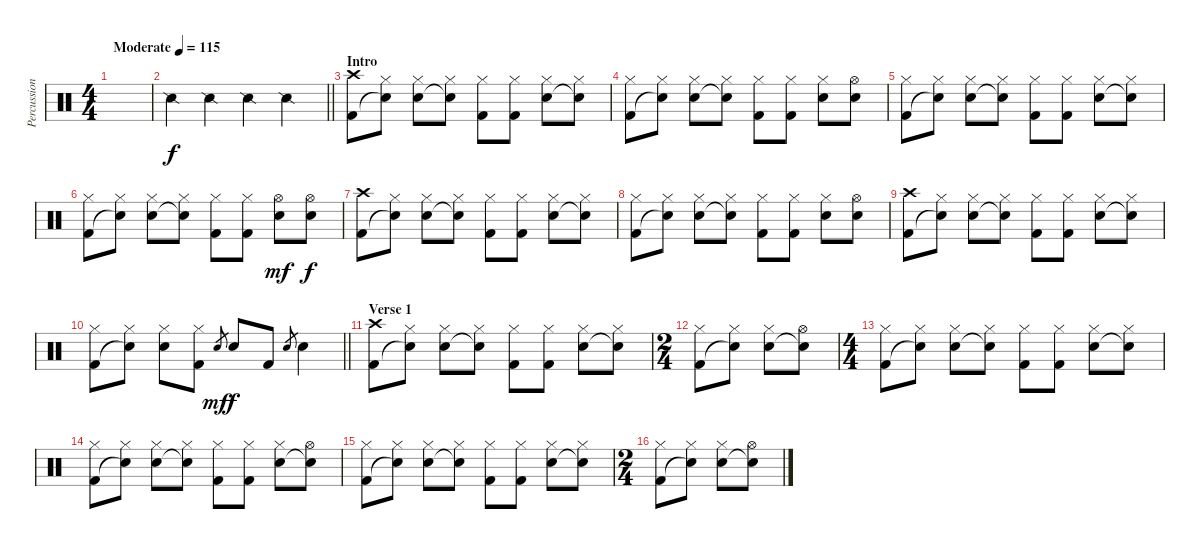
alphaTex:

\track ("Percussioni" "Percussion") {instrument percussion}
\staff {score}
\articulation defaults
\ts (4 4)
\tempo (115 "Moderate")
\clef neutral
\ks c
|
\barLineRight lightlight "Snare (side stick) 2".4 "Snare (side stick) 2".4 "Snare (side stick) 2".4 "Snare (side stick) 2".4
|
\section ("" "Intro")
("Crash high (hit)" "Kick (hit) 2").8 ("Hi-Hat (closed)" "Snare (hit)"{t}).8 ("Hi-Hat (closed)" "Electric Snare (hit)").8 ("Hi-Hat (closed)" "Snare (hit)"{t}).8 ("Hi-Hat (closed)" "Kick (hit) 2").8 ("Hi-Hat (closed)" "Kick (hit) 2").8 ("Hi-Hat (closed)" "Electric Snare (hit)").8 ("Hi-Hat (closed)" "Snare (hit)"{t}).8 |
("Hi-Hat (closed)" "Kick (hit) 2").8 ("Hi-Hat (closed)" "Snare (hit)"{t}).8 ("Hi-Hat (closed)" "Electric Snare (hit)").8 ("Hi-Hat (closed)" "Snare (hit)"{t}).8 ("Hi-Hat (closed)" "Kick (hit) 2").8 ("Hi-Hat (closed)" "Kick (hit) 2").8 ("Hi-Hat (closed)" "Electric Snare (hit)").8 ("Hi-Hat (open)" "Electric Snare (hit)").8 |
("Hi-Hat (closed)" "Kick (hit) 2").8 ("Hi-Hat (closed)" "Snare (hit)"{t}).8 ("Hi-Hat (closed)" "Electric Snare (hit)").8 ("Hi-Hat (closed)" "Snare (hit)"{t}).8 ("Hi-Hat (closed)" "Kick (hit) 2").8 ("Hi-Hat (closed)" "Kick (hit) 2").8 ("Hi-Hat (closed)" "Electric Snare (hit)").8 ("Hi-Hat (closed)" "Snare (hit)"{t}).8 |
("Hi-Hat (closed)" "Kick (hit) 2").8 ("Hi-Hat (closed)" "Snare (hit)"{t}).8 ("Hi-Hat (closed)" "Electric Snare (hit)").8 ("Hi-Hat (closed)" "Snare (hit)"{t}).8 ("Hi-Hat (closed)" "Kick (hit) 2").8 ("Hi-Hat (closed)" "Kick (hit) 2").8 ("Hi-Hat (open)" "Electric Snare (hit)").8{dy mf} ("Hi-Hat (open)" "Electric Snare (hit)").8{dy f} |
("Crash high (hit)" "Kick (hit) 2").8 ("Hi-Hat (closed)" "Snare (hit)"{t}).8 ("Hi-Hat (closed)" "Electric Snare (hit)").8 ("Hi-Hat (closed)" "Snare (hit)"{t}).8 ("Hi-Hat (closed)" "Kick (hit) 2").8 ("Hi-Hat (closed)" "Kick (hit) 2").8 ("Hi-Hat (closed)" "Electric Snare (hit)").8 ("Hi-Hat (closed)" "Snare (hit)"{t}).8 |
("Hi-Hat (closed)" "Kick (hit) 2").8 ("Hi-Hat (closed)" "Snare (hit)"{t}).8 ("Hi-Hat (closed)" "Electric Snare (hit)").8 ("Hi-Hat (closed)" "Snare (hit)"{t}).8 ("Hi-Hat (closed)" "Kick (hit) 2").8 ("Hi-Hat (closed)" "Kick (hit) 2").8 ("Hi-Hat (closed)" "Electric Snare (hit)").8 ("Hi-Hat (open)" "Electric Snare (hit)").8 |
("Crash high (hit)" "Kick (hit) 2").8 ("Hi-Hat (closed)" "Snare (hit)"{t}).8 ("Hi-Hat (closed)" "Electric Snare (hit)").8 ("Hi-Hat (closed)" "Snare (hit)"{t}).8 ("Hi-Hat (closed)" "Kick (hit) 2").8 ("Hi-Hat (closed)" "Kick (hit) 2").8 ("Hi-Hat (closed)" "Electric Snare (hit)").8 ("Hi-Hat (closed)" "Snare (hit)"{t}).8 |
\barLineRight lightlight
("Hi-Hat (closed)" "Kick (hit) 2").8 ("Hi-Hat (closed)" "Snare (hit)"{t}).8 ("Hi-Hat (closed)" "Electric Snare (hit)").8 ("Hi-Hat (closed)" "Kick (hit) 2").8 "Electric Snare (hit)".8{gr dy mf} "Electric Snare (hit)".8{dy f} "Kick (hit) 2".8 "Electric Snare (hit)".8{gr} "Electric Snare (hit)".4 |
\section ("" "Verse 1")
("Crash high (hit)" "Kick (hit) 2").8 ("Hi-Hat (closed)" "Snare (hit)"{t}).8 ("Hi-Hat (closed)" "Electric Snare (hit)").8 ("Hi-Hat (closed)" "Snare (hit)"{t}).8 ("Hi-Hat (closed)" "Kick (hit) 2").8 ("Hi-Hat (closed)" "Kick (hit) 2").8 ("Hi-Hat (closed)" "Electric Snare (hit)").8 ("Hi-Hat (closed)" "Snare (hit)"{t}).8 |
\ts (2 4)
("Hi-Hat (closed)" "Kick (hit) 2").8 ("Hi-Hat (closed)" "Snare (hit)"{t}).8 ("Hi-Hat (closed)" "Electric Snare (hit)").8 ("Hi-Hat (open)" "Snare (hit)"{t}).8 |
\ts (4 4)
("Hi-Hat (closed)" "Kick (hit) 2").8 ("Hi-Hat (closed)" "Snare (hit)"{t}).8 ("Hi-Hat (closed)" "Electric Snare (hit)").8 ("Hi-Hat (closed)" "Snare (hit)"{t}).8 ("Hi-Hat (closed)" "Kick (hit) 2").8 ("Hi-Hat (closed)" "Kick (hit) 2").8 ("Hi-Hat (closed)" "Electric Snare (hit)").8 ("Hi-Hat (closed)" "Snare (hit)"{t}).8 |
("Hi-Hat (closed)" "Kick (hit) 2").8 ("Hi-Hat (closed)" "Snare (hit)"{t}).8 ("Hi-Hat (closed)" "Electric Snare (hit)").8 ("Hi-Hat (closed)" "Snare (hit)"{t}).8 ("Hi-Hat (closed)" "Kick (hit) 2").8 ("Hi-Hat (closed)" "Kick (hit) 2").8 ("Hi-Hat (closed)" "Electric Snare (hit)").8 ("Hi-Hat (open)" "Snare (hit)"{t}).8 |
("Hi-Hat (closed)" "Kick (hit) 2").8 ("Hi-Hat (closed)" "Snare (hit)"{t}).8 ("Hi-Hat (closed)" "Electric Snare (hit)").8 ("Hi-Hat (closed)" "Snare (hit)"{t}).8 ("Hi-Hat (closed)" "Kick (hit) 2").8 ("Hi-Hat (closed)" "Kick (hit) 2").8 ("Hi-Hat (closed)" "Electric Snare (hit)").8 ("Hi-Hat (closed)" "Snare (hit)"{t}).8 |
\ts (2 4)
("Hi-Hat (closed)" "Kick (hit) 2").8 ("Hi-Hat (closed)" "Snare (hit)"{t}).8 ("Hi-Hat (closed)" "Electric Snare (hit)").8 ("Hi-Hat (open)" "Snare (hit)"{t}).8
